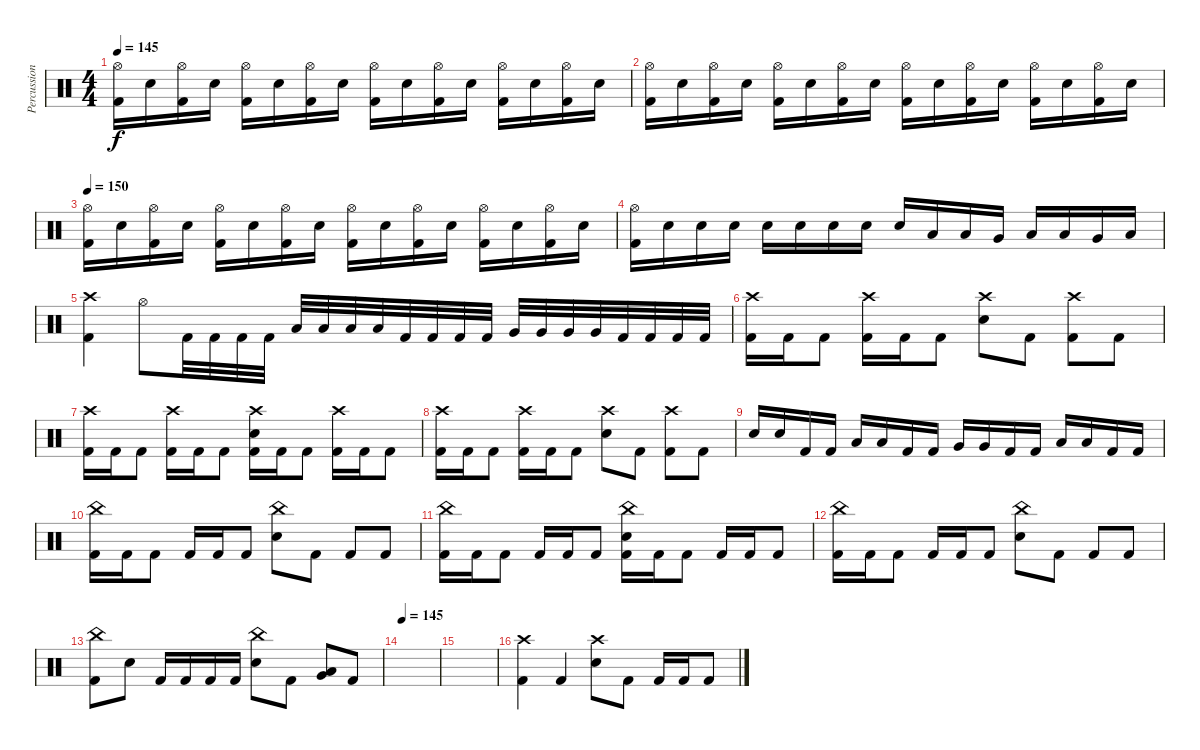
\track ("Percussion" "Percussion") {instrument percussion}
\staff {score}
\articulation defaults
\ts (4 4)
\tempo 145
\clef neutral
\ks c
("Hi-Hat (open)" "Kick (hit) 2").16{dy f} "Electric Snare (hit)".16 ("Hi-Hat (open)" "Kick (hit) 2").16 "Electric Snare (hit)".16 ("Hi-Hat (open)" "Kick (hit) 2").16 "Electric Snare (hit)".16 ("Hi-Hat (open)" "Kick (hit) 2").16 "Electric Snare (hit)".16 ("Hi-Hat (open)" "Kick (hit) 2").16 "Electric Snare (hit)".16 ("Hi-Hat (open)" "Kick (hit) 2").16 "Electric Snare (hit)".16 ("Hi-Hat (open)" "Kick (hit) 2").16 "Electric Snare (hit)".16 ("Hi-Hat (open)" "Kick (hit) 2").16 "Electric Snare (hit)".16 |
("Hi-Hat (open)" "Kick (hit) 2").16 "Electric Snare (hit)".16 ("Hi-Hat (open)" "Kick (hit) 2").16 "Electric Snare (hit)".16 ("Hi-Hat (open)" "Kick (hit) 2").16 "Electric Snare (hit)".16 ("Hi-Hat (open)" "Kick (hit) 2").16 "Electric Snare (hit)".16 ("Hi-Hat (open)" "Kick (hit) 2").16 "Electric Snare (hit)".16 ("Hi-Hat (open)" "Kick (hit) 2").16 "Electric Snare (hit)".16 ("Hi-Hat (open)" "Kick (hit) 2").16 "Electric Snare (hit)".16 ("Hi-Hat (open)" "Kick (hit) 2").16 "Electric Snare (hit)".16 |
\tempo 150
("Hi-Hat (open)" "Kick (hit) 2").16 "Electric Snare (hit)".16 ("Hi-Hat (open)" "Kick (hit) 2").16 "Electric Snare (hit)".16 ("Hi-Hat (open)" "Kick (hit) 2").16 "Electric Snare (hit)".16 ("Hi-Hat (open)" "Kick (hit) 2").16 "Electric Snare (hit)".16 ("Hi-Hat (open)" "Kick (hit) 2").16 "Electric Snare (hit)".16 ("Hi-Hat (open)" "Kick (hit) 2").16 "Electric Snare (hit)".16 ("Hi-Hat (open)" "Kick (hit) 2").16 "Electric Snare (hit)".16 ("Hi-Hat (open)" "Kick (hit) 2").16 "Electric Snare (hit)".16 |
("Hi-Hat (open)" "Kick (hit) 2").16 "Electric Snare (hit)".16 "Electric Snare (hit)".16 "Electric Snare (hit)".16 "Electric Snare (hit)".16 "Electric Snare (hit)".16 "Electric Snare (hit)".16 "Electric Snare (hit)".16 "Electric Snare (hit)".16 "Low Tom (hit)".16 "Low Tom (hit)".16 "Very Low Tom (hit)".16 "Low Tom (hit)".16 "Low Tom (hit)".16 "Very Low Tom (hit)".16 "Low Floor Tom (hit)".16 |
("Crash high (hit)" "Kick (hit) 2").4 "Hi-Hat (open)".8 "Kick (hit) 2".32 "Kick (hit) 2".32 "Kick (hit) 2".32 "Kick (hit) 2".32 "Low Tom (hit)".32 "Low Tom (hit)".32 "Low Tom (hit)".32 "Low Tom (hit)".32 "Kick (hit) 2".32 "Kick (hit) 2".32 "Kick (hit) 2".32 "Kick (hit) 2".32 "Very Low Tom (hit)".32 "Very Low Tom (hit)".32 "Very Low Tom (hit)".32 "Very Low Tom (hit)".32 "Kick (hit) 2".32 "Kick (hit) 2".32 "Kick (hit) 2".32 "Kick (hit) 2".32 |
("Crash high (hit)" "Kick (hit) 2").16 "Kick (hit) 2".16 "Kick (hit) 2".8 ("Crash high (hit)" "Kick (hit) 2").16 "Kick (hit) 2".16 "Kick (hit) 2".8 ("Crash high (hit)" "Electric Snare (hit)").8 "Kick (hit) 2".8 ("Crash high (hit)" "Kick (hit) 2").8 "Kick (hit) 2".8 |
("Crash high (hit)" "Kick (hit) 2").16 "Kick (hit) 2".16 "Kick (hit) 2".8 ("Crash high (hit)" "Kick (hit) 2").16 "Kick (hit) 2".16 "Kick (hit) 2".8 ("Crash high (hit)" "Electric Snare (hit)" "Kick (hit) 2").16 "Kick (hit) 2".16 "Kick (hit) 2".8 ("Crash high (hit)" "Kick (hit) 2").16 "Kick (hit) 2".16 "Kick (hit) 2".8 |
("Crash high (hit)" "Kick (hit) 2").16 "Kick (hit) 2".16 "Kick (hit) 2".8 ("Crash high (hit)" "Kick (hit) 2").16 "Kick (hit) 2".16 "Kick (hit) 2".8 ("Crash high (hit)" "Electric Snare (hit)").8 "Kick (hit) 2".8 ("Crash high (hit)" "Kick (hit) 2").8 "Kick (hit) 2".8 |
"Electric Snare (hit)".16 "Electric Snare (hit)".16 "Kick (hit) 2".16 "Kick (hit) 2".16 "Low Tom (hit)".16 "Low Tom (hit)".16 "Kick (hit) 2".16 "Kick (hit) 2".16 "Very Low Tom (hit)".16 "Very Low Tom (hit)".16 "Kick (hit) 2".16 "Kick (hit) 2".16 "Low Floor Tom (hit)".16 "Low Floor Tom (hit)".16 "Kick (hit) 2".16 "Kick (hit) 2".16 |
("China (hit)" "Kick (hit) 2").16 "Kick (hit) 2".16 "Kick (hit) 2".8 "Kick (hit) 2".16 "Kick (hit) 2".16 "Kick (hit) 2".8 ("China (hit)" "Electric Snare (hit)").8 "Kick (hit) 2".8 "Kick (hit) 2".8 "Kick (hit) 2".8 |
("China (hit)" "Kick (hit) 2").16 "Kick (hit) 2".16 "Kick (hit) 2".8 "Kick (hit) 2".16 "Kick (hit) 2".16 "Kick (hit) 2".8 ("China (hit)" "Electric Snare (hit)" "Kick (hit) 2").16 "Kick (hit) 2".16 "Kick (hit) 2".8 "Kick (hit) 2".16 "Kick (hit) 2".16 "Kick (hit) 2".8 |
("China (hit)" "Kick (hit) 2").16 "Kick (hit) 2".16 "Kick (hit) 2".8 "Kick (hit) 2".16 "Kick (hit) 2".16 "Kick (hit) 2".8 ("China (hit)" "Electric Snare (hit)").8 "Kick (hit) 2".8 "Kick (hit) 2".8 "Kick (hit) 2".8 |
("China (hit)" "Kick (hit) 2").8 "Electric Snare (hit)".8 "Kick (hit) 2".16 "Kick (hit) 2".16 "Kick (hit) 2".16 "Kick (hit) 2".16 ("China (hit)" "Electric Snare (hit)").8 "Kick (hit) 2".8 ("Low Tom (hit)" "Very Low Tom (hit)").8 "Kick (hit) 2".8 |
\tempo 145
|
|
("Crash high (hit)" "Kick (hit) 2").4 "Kick (hit) 2".4 ("Crash high (hit)" "Electric Snare (hit)").8 "Kick (hit) 2".8 "Kick (hit) 2".16 "Kick (hit) 2".16 "Kick (hit) 2".8
